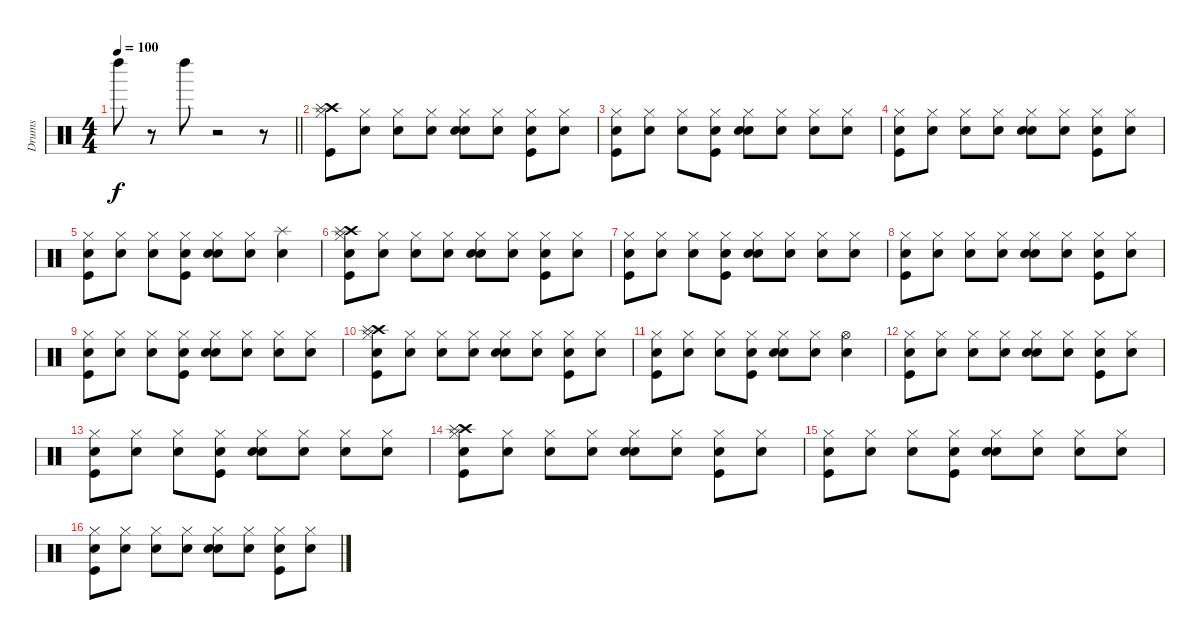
\track ("Drums" "Drums") {instrument percussion}
\staff {score}
\articulation defaults
\ts (4 4)
\tempo 100
\clef neutral
\barLineRight lightlight
\ks c "Left Maraca (hit)".8{dy f}
r.8 "Left Maraca (hit)".8 r.2 r.8 |
("Kick (hit)" "Crash high (hit)" "Splash (hit)" "Hi-Hat (closed)").8 ("Snare (hit)" "Hi-Hat (closed)").8 ("Snare (hit)" "Hi-Hat (closed)").8 ("Snare (hit)" "Hi-Hat (closed)").8 ("Snare (hit)" "Snare (hit) 2" "Hi-Hat (closed)").8 ("Snare (hit)" "Hi-Hat (closed)").8 ("Snare (hit)" "Kick (hit)" "Hi-Hat (closed)").8 ("Snare (hit)" "Hi-Hat (closed)").8 |
("Snare (hit)" "Kick (hit)" "Hi-Hat (closed)").8 ("Snare (hit)" "Hi-Hat (closed)").8 ("Snare (hit)" "Hi-Hat (closed)").8 ("Snare (hit)" "Kick (hit)" "Hi-Hat (closed)").8 ("Snare (hit)" "Snare (hit) 2" "Hi-Hat (closed)").8 ("Snare (hit)" "Hi-Hat (closed)").8 ("Snare (hit)" "Hi-Hat (closed)").8 ("Snare (hit)" "Hi-Hat (closed)").8 |
("Snare (hit)" "Kick (hit)" "Hi-Hat (closed)").8 ("Snare (hit)" "Hi-Hat (closed)").8 ("Snare (hit)" "Hi-Hat (closed)").8 ("Snare (hit)" "Hi-Hat (closed)").8 ("Snare (hit)" "Snare (hit) 2" "Hi-Hat (closed)").8 ("Snare (hit)" "Hi-Hat (closed)").8 ("Snare (hit)" "Kick (hit)" "Hi-Hat (closed)").8 ("Snare (hit)" "Hi-Hat (closed)").8 |
("Snare (hit)" "Kick (hit)" "Hi-Hat (closed)").8 ("Snare (hit)" "Hi-Hat (closed)").8 ("Snare (hit)" "Hi-Hat (closed)").8 ("Snare (hit)" "Kick (hit)" "Hi-Hat (closed)").8 ("Snare (hit)" "Snare (hit) 2" "Hi-Hat (closed)").8 ("Snare (hit)" "Hi-Hat (closed)").8 ("Snare (hit)" "Splash (hit)").4 |
("Snare (hit)" "Kick (hit)" "Crash high (hit)" "Splash (hit)" "Hi-Hat (closed)").8 ("Snare (hit)" "Hi-Hat (closed)").8 ("Snare (hit)" "Hi-Hat (closed)").8 ("Snare (hit)" "Hi-Hat (closed)").8 ("Snare (hit)" "Snare (hit) 2" "Hi-Hat (closed)").8 ("Snare (hit)" "Hi-Hat (closed)").8 ("Snare (hit)" "Kick (hit)" "Hi-Hat (closed)").8 ("Snare (hit)" "Hi-Hat (closed)").8 |
("Snare (hit)" "Kick (hit)" "Hi-Hat (closed)").8 ("Snare (hit)" "Hi-Hat (closed)").8 ("Snare (hit)" "Hi-Hat (closed)").8 ("Snare (hit)" "Kick (hit)" "Hi-Hat (closed)").8 ("Snare (hit)" "Snare (hit) 2" "Hi-Hat (closed)").8 ("Snare (hit)" "Hi-Hat (closed)").8 ("Snare (hit)" "Hi-Hat (closed)").8 ("Snare (hit)" "Hi-Hat (closed)").8 |
("Snare (hit)" "Kick (hit)" "Hi-Hat (closed)").8 ("Snare (hit)" "Hi-Hat (closed)").8 ("Snare (hit)" "Hi-Hat (closed)").8 ("Snare (hit)" "Hi-Hat (closed)").8 ("Snare (hit)" "Snare (hit) 2" "Hi-Hat (closed)").8 ("Snare (hit)" "Hi-Hat (closed)").8 ("Snare (hit)" "Kick (hit)" "Hi-Hat (closed)").8 ("Snare (hit)" "Hi-Hat (closed)").8 |
("Snare (hit)" "Kick (hit)" "Hi-Hat (closed)").8 ("Snare (hit)" "Hi-Hat (closed)").8 ("Snare (hit)" "Hi-Hat (closed)").8 ("Snare (hit)" "Kick (hit)" "Hi-Hat (closed)").8 ("Snare (hit)" "Snare (hit) 2" "Hi-Hat (closed)").8 ("Snare (hit)" "Hi-Hat (closed)").8 ("Snare (hit)" "Hi-Hat (closed)").8 ("Snare (hit)" "Hi-Hat (closed)").8 |
("Snare (hit)" "Kick (hit)" "Crash high (hit)" "Splash (hit)" "Hi-Hat (closed)").8 ("Snare (hit)" "Hi-Hat (closed)").8 ("Snare (hit)" "Hi-Hat (closed)").8 ("Snare (hit)" "Hi-Hat (closed)").8 ("Snare (hit)" "Snare (hit) 2" "Hi-Hat (closed)").8 ("Snare (hit)" "Hi-Hat (closed)").8 ("Snare (hit)" "Kick (hit)" "Hi-Hat (closed)").8 ("Snare (hit)" "Hi-Hat (closed)").8 |
("Snare (hit)" "Kick (hit)" "Hi-Hat (closed)").8 ("Snare (hit)" "Hi-Hat (closed)").8 ("Snare (hit)" "Hi-Hat (closed)").8 ("Snare (hit)" "Kick (hit)" "Hi-Hat (closed)").8 ("Snare (hit)" "Snare (hit) 2" "Hi-Hat (closed)").8 ("Snare (hit)" "Hi-Hat (closed)").8 ("Snare (hit)" "Hi-Hat (open)").4 |
("Snare (hit)" "Kick (hit)" "Hi-Hat (closed)").8 ("Snare (hit)" "Hi-Hat (closed)").8 ("Snare (hit)" "Hi-Hat (closed)").8 ("Snare (hit)" "Hi-Hat (closed)").8 ("Snare (hit)" "Snare (hit) 2" "Hi-Hat (closed)").8 ("Snare (hit)" "Hi-Hat (closed)").8 ("Snare (hit)" "Kick (hit)" "Hi-Hat (closed)").8 ("Snare (hit)" "Hi-Hat (closed)").8 |
("Snare (hit)" "Kick (hit)" "Hi-Hat (closed)").8 ("Snare (hit)" "Hi-Hat (closed)").8 ("Snare (hit)" "Hi-Hat (closed)").8 ("Snare (hit)" "Kick (hit)" "Hi-Hat (closed)").8 ("Snare (hit)" "Snare (hit) 2" "Hi-Hat (closed)").8 ("Snare (hit)" "Hi-Hat (closed)").8 ("Snare (hit)" "Hi-Hat (closed)").8 ("Snare (hit)" "Hi-Hat (closed)").8 |
("Snare (hit)" "Kick (hit)" "Crash high (hit)" "Splash (hit)" "Hi-Hat (closed)").8 ("Snare (hit)" "Hi-Hat (closed)").8 ("Snare (hit)" "Hi-Hat (closed)").8 ("Snare (hit)" "Hi-Hat (closed)").8 ("Snare (hit)" "Snare (hit) 2" "Hi-Hat (closed)").8 ("Snare (hit)" "Hi-Hat (closed)").8 ("Snare (hit)" "Kick (hit)" "Hi-Hat (closed)").8 ("Snare (hit)" "Hi-Hat (closed)").8 |
("Snare (hit)" "Kick (hit)" "Hi-Hat (closed)").8 ("Snare (hit)" "Hi-Hat (closed)").8 ("Snare (hit)" "Hi-Hat (closed)").8 ("Snare (hit)" "Kick (hit)" "Hi-Hat (closed)").8 ("Snare (hit)" "Snare (hit) 2" "Hi-Hat (closed)").8 ("Snare (hit)" "Hi-Hat (closed)").8 ("Snare (hit)" "Hi-Hat (closed)").8 ("Snare (hit)" "Hi-Hat (closed)").8 |
("Snare (hit)" "Kick (hit)" "Hi-Hat (closed)").8 ("Snare (hit)" "Hi-Hat (closed)").8 ("Snare (hit)" "Hi-Hat (closed)").8 ("Snare (hit)" "Hi-Hat (closed)").8 ("Snare (hit)" "Snare (hit) 2" "Hi-Hat (closed)").8 ("Snare (hit)" "Hi-Hat (closed)").8 ("Snare (hit)" "Kick (hit)" "Hi-Hat (closed)").8 ("Snare (hit)" "Hi-Hat (closed)").8
